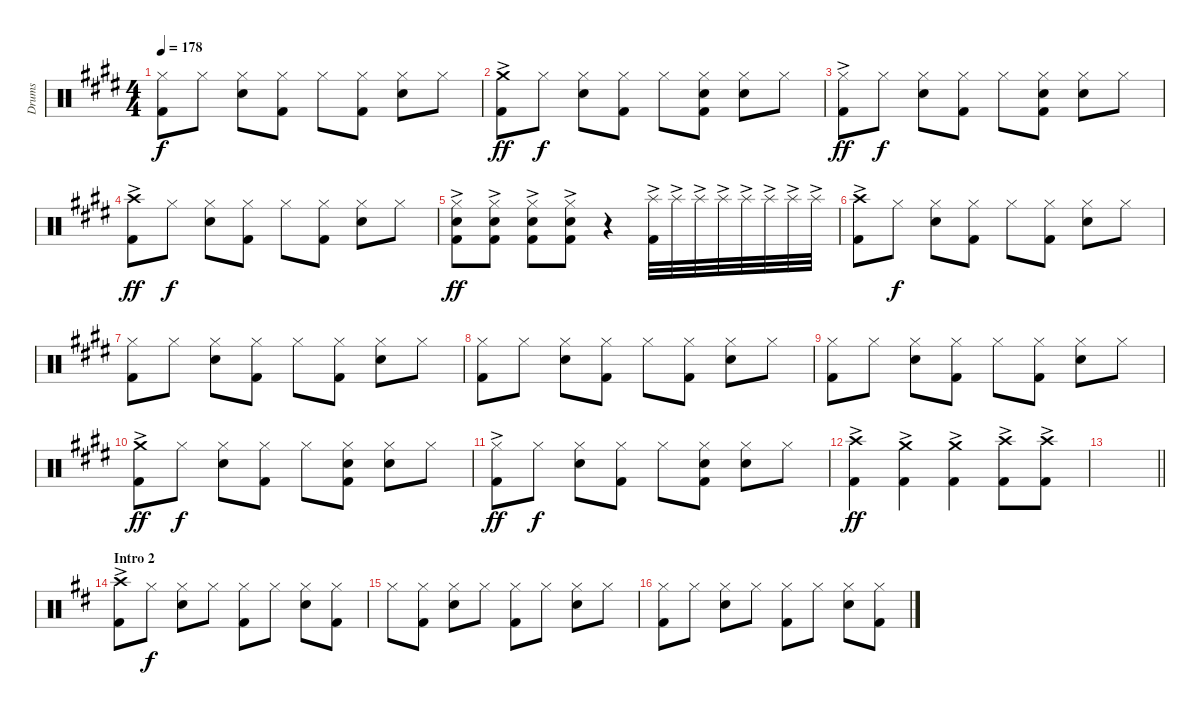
\track ("Drums" "Drums") {instrument percussion}
\staff {score}
\articulation defaults
\ts (4 4)
\tempo 178
\clef neutral
\ks e
("Hi-Hat (closed)" "Kick (hit) 2").8{dy f} "Hi-Hat (closed)".8 ("Hi-Hat (closed)" "Electric Snare (hit)").8 ("Hi-Hat (closed)" "Kick (hit) 2").8 "Hi-Hat (closed)".8 ("Hi-Hat (closed)" "Kick (hit) 2").8 ("Hi-Hat (closed)" "Electric Snare (hit)").8 "Hi-Hat (closed)".8 |
("Crash medium (hit)"{ac} "Kick (hit) 2").8{dy ff} "Hi-Hat (closed)".8{dy f} ("Hi-Hat (closed)" "Electric Snare (hit)").8 ("Hi-Hat (closed)" "Kick (hit) 2").8 "Hi-Hat (closed)".8 ("Hi-Hat (closed)" "Electric Snare (hit)" "Kick (hit) 2").8 ("Hi-Hat (closed)" "Electric Snare (hit)").8 "Hi-Hat (closed)".8 |
("Hi-Hat (closed)"{ac} "Kick (hit) 2").8{dy ff} "Hi-Hat (closed)".8{dy f} ("Hi-Hat (closed)" "Electric Snare (hit)").8 ("Hi-Hat (closed)" "Kick (hit) 2").8 "Hi-Hat (closed)".8 ("Hi-Hat (closed)" "Electric Snare (hit)" "Kick (hit) 2").8 ("Hi-Hat (closed)" "Electric Snare (hit)").8 "Hi-Hat (closed)".8 |
("Crash high (hit)"{ac} "Kick (hit) 2").8{dy ff} "Hi-Hat (closed)".8{dy f} ("Hi-Hat (closed)" "Electric Snare (hit)").8 ("Hi-Hat (closed)" "Kick (hit) 2").8 "Hi-Hat (closed)".8 ("Hi-Hat (closed)" "Kick (hit) 2").8 ("Hi-Hat (closed)" "Electric Snare (hit)").8 "Hi-Hat (closed)".8 |
("Hi-Hat (closed)"{ac} "Electric Snare (hit)"{ac} "Kick (hit) 2"{ac}).8{dy ff} ("Hi-Hat (closed)"{ac} "Electric Snare (hit)"{ac} "Kick (hit) 2"{ac}).8 ("Hi-Hat (closed)"{ac} "Electric Snare (hit)"{ac} "Kick (hit) 2"{ac}).8 ("Hi-Hat (closed)"{ac} "Electric Snare (hit)"{ac} "Kick (hit) 2"{ac}).8 r.4{volume 8} ("Splash (hit)"{ac} "Kick (hit) 2").32{volume 16} "Splash (hit)"{ac}.32 "Splash (hit)"{ac}.32 "Splash (hit)"{ac}.32 "Splash (hit)"{ac}.32 "Splash (hit)"{ac}.32 "Splash (hit)"{ac}.32 "Splash (hit)"{ac}.32 |
("Crash high (hit)"{ac} "Kick (hit) 2").8 "Hi-Hat (closed)".8{dy f} ("Hi-Hat (closed)" "Electric Snare (hit)").8 ("Hi-Hat (closed)" "Kick (hit) 2").8 "Hi-Hat (closed)".8 ("Hi-Hat (closed)" "Kick (hit) 2").8 ("Hi-Hat (closed)" "Electric Snare (hit)").8 "Hi-Hat (closed)".8 |
("Hi-Hat (closed)" "Kick (hit) 2").8 "Hi-Hat (closed)".8 ("Hi-Hat (closed)" "Electric Snare (hit)").8 ("Hi-Hat (closed)" "Kick (hit) 2").8 "Hi-Hat (closed)".8 ("Hi-Hat (closed)" "Kick (hit) 2").8 ("Hi-Hat (closed)" "Electric Snare (hit)").8 "Hi-Hat (closed)".8 |
("Hi-Hat (closed)" "Kick (hit) 2").8 "Hi-Hat (closed)".8 ("Hi-Hat (closed)" "Electric Snare (hit)").8 ("Hi-Hat (closed)" "Kick (hit) 2").8 "Hi-Hat (closed)".8 ("Hi-Hat (closed)" "Kick (hit) 2").8 ("Hi-Hat (closed)" "Electric Snare (hit)").8 "Hi-Hat (closed)".8 |
("Hi-Hat (closed)" "Kick (hit) 2").8 "Hi-Hat (closed)".8 ("Hi-Hat (closed)" "Electric Snare (hit)").8 ("Hi-Hat (closed)" "Kick (hit) 2").8 "Hi-Hat (closed)".8 ("Hi-Hat (closed)" "Kick (hit) 2").8 ("Hi-Hat (closed)" "Electric Snare (hit)").8 "Hi-Hat (closed)".8 |
("Crash medium (hit)"{ac} "Kick (hit) 2").8{dy ff} "Hi-Hat (closed)".8{dy f} ("Hi-Hat (closed)" "Electric Snare (hit)").8 ("Hi-Hat (closed)" "Kick (hit) 2").8 "Hi-Hat (closed)".8 ("Hi-Hat (closed)" "Electric Snare (hit)" "Kick (hit) 2").8 ("Hi-Hat (closed)" "Electric Snare (hit)").8 "Hi-Hat (closed)".8 |
("Hi-Hat (closed)"{ac} "Kick (hit) 2").8{dy ff} "Hi-Hat (closed)".8{dy f} ("Hi-Hat (closed)" "Electric Snare (hit)").8 ("Hi-Hat (closed)" "Kick (hit) 2").8 "Hi-Hat (closed)".8 ("Hi-Hat (closed)" "Electric Snare (hit)" "Kick (hit) 2").8 ("Hi-Hat (closed)" "Electric Snare (hit)").8 "Hi-Hat (closed)".8 |
("Crash high (hit)"{ac} "Kick (hit) 2"{ac}).4{dy ff} ("Crash medium (hit)"{ac} "Kick (hit) 2"{ac}).4 ("Crash medium (hit)"{ac} "Kick (hit) 2"{ac}).4 ("Crash high (hit)"{ac} "Kick (hit) 2"{ac}).8 ("Crash high (hit)"{ac} "Kick (hit) 2"{ac}).8 |
\barLineRight lightlight
|
\section ("" "Intro 2")
\ks d
("Crash high (hit)"{ac} "Kick (hit) 2").8 "Hi-Hat (closed)".8{dy f} ("Hi-Hat (closed)" "Electric Snare (hit)").8 "Hi-Hat (closed)".8 ("Hi-Hat (closed)" "Kick (hit) 2").8 "Hi-Hat (closed)".8 ("Hi-Hat (closed)" "Electric Snare (hit)").8 ("Hi-Hat (closed)" "Kick (hit) 2").8 |
"Hi-Hat (closed)".8 ("Hi-Hat (closed)" "Kick (hit) 2").8 ("Hi-Hat (closed)" "Electric Snare (hit)").8 "Hi-Hat (closed)".8 ("Hi-Hat (closed)" "Kick (hit) 2").8 "Hi-Hat (closed)".8 ("Hi-Hat (closed)" "Electric Snare (hit)").8 "Hi-Hat (closed)".8 |
("Hi-Hat (closed)" "Kick (hit) 2").8 "Hi-Hat (closed)".8 ("Hi-Hat (closed)" "Electric Snare (hit)").8 "Hi-Hat (closed)".8 ("Hi-Hat (closed)" "Kick (hit) 2").8 "Hi-Hat (closed)".8 ("Hi-Hat (closed)" "Electric Snare (hit)").8 ("Hi-Hat (closed)" "Kick (hit) 2").8
